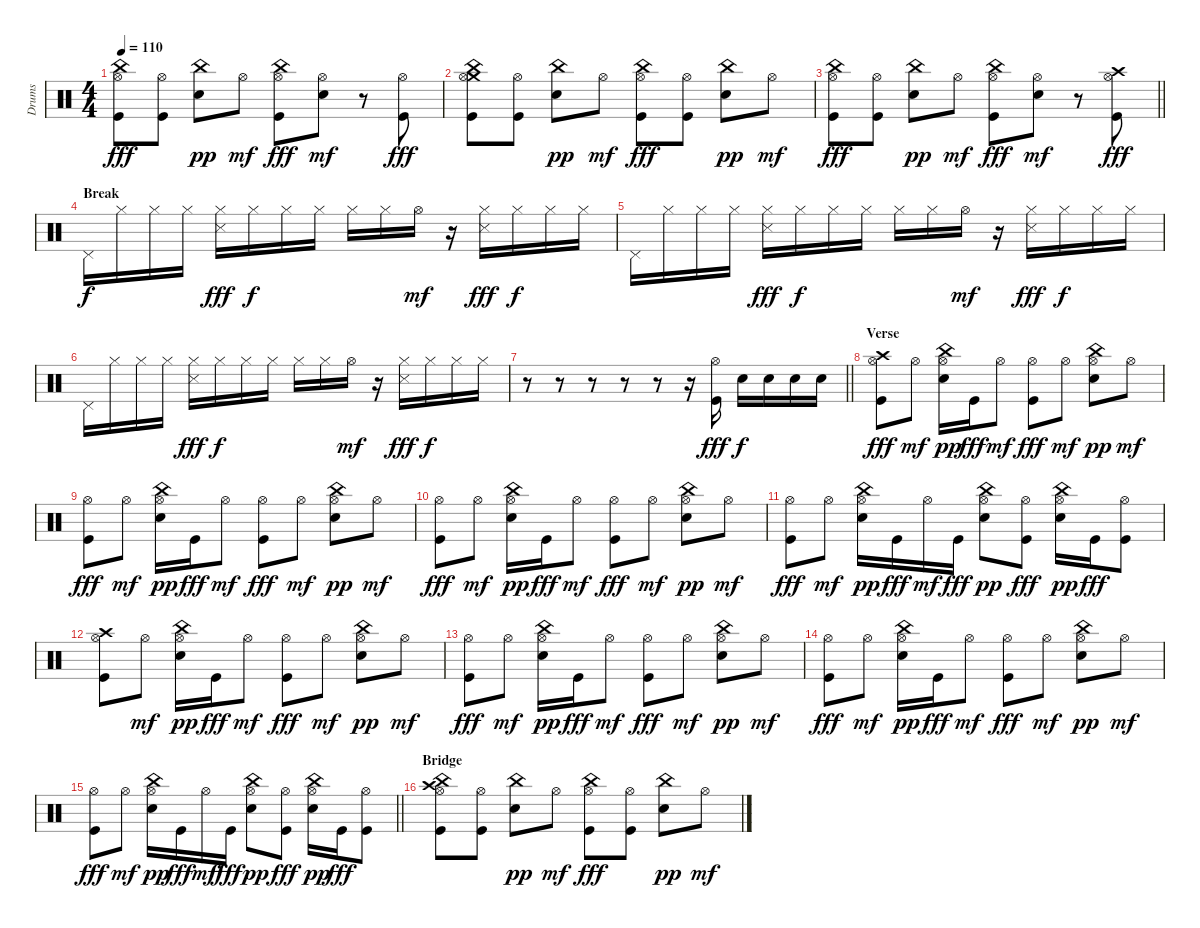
\track ("Drums" "Drums") {instrument percussion}
\staff {score}
\articulation defaults
\ts (4 4)
\tempo 110
\clef neutral
\ks c
("Hi-Hat (open)" "China (hit)" "Kick (hit)").8{dy fff} ("Hi-Hat (open)" "Kick (hit)").8 ("China (hit)" "Electric Snare (hit)").8{dy pp} "Hi-Hat (open)".8{dy mf} ("Hi-Hat (open)" "China (hit)" "Kick (hit)").8{dy fff} ("Hi-Hat (open)" "Electric Snare (hit)").8{dy mf} r.8 ("Hi-Hat (open)" "Kick (hit)").8{dy fff} |
("Crash medium (hit)" "Hi-Hat (open)" "China (hit)" "Kick (hit)").8 ("Hi-Hat (open)" "Kick (hit)").8 ("China (hit)" "Electric Snare (hit)").8{dy pp} "Hi-Hat (open)".8{dy mf} ("Hi-Hat (open)" "China (hit)" "Kick (hit)").8{dy fff} ("Hi-Hat (open)" "Kick (hit)").8 ("China (hit)" "Electric Snare (hit)").8{dy pp} "Hi-Hat (open)".8{dy mf} |
\barLineRight lightlight
("Hi-Hat (open)" "China (hit)" "Kick (hit)").8{dy fff} ("Hi-Hat (open)" "Kick (hit)").8 ("China (hit)" "Electric Snare (hit)").8{dy pp} "Hi-Hat (open)".8{dy mf} ("Hi-Hat (open)" "China (hit)" "Kick (hit)").8{dy fff} ("Hi-Hat (open)" "Electric Snare (hit)").8{dy mf} r.8 ("Crash high (hit)" "Hi-Hat (open)" "Kick (hit)").8{dy fff} |
\section ("" "Break")
"Pedal Hi-Hat (hit)".16{dy f} "Hi-Hat (closed)".16 "Hi-Hat (closed)".16 "Hi-Hat (closed)".16 ("Hi-Hat (closed)" "Snare (side stick) 3").16{dy fff} "Hi-Hat (closed)".16{dy f} "Hi-Hat (closed)".16 "Hi-Hat (closed)".16 "Hi-Hat (closed)".16 "Hi-Hat (closed)".16 "Hi-Hat (open)".16{dy mf} r.16 ("Hi-Hat (closed)" "Snare (side stick) 3").16{dy fff} "Hi-Hat (closed)".16{dy f} "Hi-Hat (closed)".16 "Hi-Hat (closed)".16 |
"Pedal Hi-Hat (hit)".16 "Hi-Hat (closed)".16 "Hi-Hat (closed)".16 "Hi-Hat (closed)".16 ("Hi-Hat (closed)" "Snare (side stick) 3").16{dy fff} "Hi-Hat (closed)".16{dy f} "Hi-Hat (closed)".16 "Hi-Hat (closed)".16 "Hi-Hat (closed)".16 "Hi-Hat (closed)".16 "Hi-Hat (open)".16{dy mf} r.16 ("Hi-Hat (closed)" "Snare (side stick) 3").16{dy fff} "Hi-Hat (closed)".16{dy f} "Hi-Hat (closed)".16 "Hi-Hat (closed)".16 |
"Pedal Hi-Hat (hit)".16 "Hi-Hat (closed)".16 "Hi-Hat (closed)".16 "Hi-Hat (closed)".16 ("Hi-Hat (closed)" "Snare (side stick) 3").16{dy fff} "Hi-Hat (closed)".16{dy f} "Hi-Hat (closed)".16 "Hi-Hat (closed)".16 "Hi-Hat (closed)".16 "Hi-Hat (closed)".16 "Hi-Hat (open)".16{dy mf} r.16 ("Hi-Hat (closed)" "Snare (side stick) 3").16{dy fff} "Hi-Hat (closed)".16{dy f} "Hi-Hat (closed)".16 "Hi-Hat (closed)".16 |
\barLineRight lightlight
r.8 r.8 r.8 r.8 r.8 r.16 ("Hi-Hat (open)" "Kick (hit)").16{dy fff} "Electric Snare (hit)".16{dy f} "Electric Snare (hit)".16 "Electric Snare (hit)".16 "Electric Snare (hit)".16 |
\section ("" "Verse")
("Crash high (hit)" "Hi-Hat (open)" "Kick (hit)").8{dy fff} "Hi-Hat (open)".8{dy mf} ("Hi-Hat (open)" "China (hit)" "Electric Snare (hit)").16{dy pp} "Kick (hit)".16{dy fff} "Hi-Hat (open)".8{dy mf} ("Hi-Hat (open)" "Kick (hit)").8{dy fff} "Hi-Hat (open)".8{dy mf} ("Hi-Hat (open)" "China (hit)" "Electric Snare (hit)").8{dy pp} "Hi-Hat (open)".8{dy mf} |
("Hi-Hat (open)" "Kick (hit)").8{dy fff} "Hi-Hat (open)".8{dy mf} ("Hi-Hat (open)" "China (hit)" "Electric Snare (hit)").16{dy pp} "Kick (hit)".16{dy fff} "Hi-Hat (open)".8{dy mf} ("Hi-Hat (open)" "Kick (hit)").8{dy fff} "Hi-Hat (open)".8{dy mf} ("Hi-Hat (open)" "China (hit)" "Electric Snare (hit)").8{dy pp} "Hi-Hat (open)".8{dy mf} |
("Hi-Hat (open)" "Kick (hit)").8{dy fff} "Hi-Hat (open)".8{dy mf} ("Hi-Hat (open)" "China (hit)" "Electric Snare (hit)").16{dy pp} "Kick (hit)".16{dy fff} "Hi-Hat (open)".8{dy mf} ("Hi-Hat (open)" "Kick (hit)").8{dy fff} "Hi-Hat (open)".8{dy mf} ("Hi-Hat (open)" "China (hit)" "Electric Snare (hit)").8{dy pp} "Hi-Hat (open)".8{dy mf} |
("Hi-Hat (open)" "Kick (hit)").8{dy fff} "Hi-Hat (open)".8{dy mf} ("Hi-Hat (open)" "China (hit)" "Electric Snare (hit)").16{dy pp} "Kick (hit)".16{dy fff} "Hi-Hat (open)".16{dy mf} "Kick (hit)".16{dy fff} ("Hi-Hat (open)" "China (hit)" "Electric Snare (hit)").8{dy pp} ("Hi-Hat (open)" "Kick (hit)").8{dy fff} ("Hi-Hat (open)" "China (hit)" "Electric Snare (hit)").16{dy pp} "Kick (hit)".16{dy fff} ("Hi-Hat (open)" "Kick (hit)").8 |
("Crash high (hit)" "Hi-Hat (open)" "Kick (hit)").8 "Hi-Hat (open)".8{dy mf} ("Hi-Hat (open)" "China (hit)" "Electric Snare (hit)").16{dy pp} "Kick (hit)".16{dy fff} "Hi-Hat (open)".8{dy mf} ("Hi-Hat (open)" "Kick (hit)").8{dy fff} "Hi-Hat (open)".8{dy mf} ("Hi-Hat (open)" "China (hit)" "Electric Snare (hit)").8{dy pp} "Hi-Hat (open)".8{dy mf} |
("Hi-Hat (open)" "Kick (hit)").8{dy fff} "Hi-Hat (open)".8{dy mf} ("Hi-Hat (open)" "China (hit)" "Electric Snare (hit)").16{dy pp} "Kick (hit)".16{dy fff} "Hi-Hat (open)".8{dy mf} ("Hi-Hat (open)" "Kick (hit)").8{dy fff} "Hi-Hat (open)".8{dy mf} ("Hi-Hat (open)" "China (hit)" "Electric Snare (hit)").8{dy pp} "Hi-Hat (open)".8{dy mf} |
("Hi-Hat (open)" "Kick (hit)").8{dy fff} "Hi-Hat (open)".8{dy mf} ("Hi-Hat (open)" "China (hit)" "Electric Snare (hit)").16{dy pp} "Kick (hit)".16{dy fff} "Hi-Hat (open)".8{dy mf} ("Hi-Hat (open)" "Kick (hit)").8{dy fff} "Hi-Hat (open)".8{dy mf} ("Hi-Hat (open)" "China (hit)" "Electric Snare (hit)").8{dy pp} "Hi-Hat (open)".8{dy mf} |
\barLineRight lightlight
("Hi-Hat (open)" "Kick (hit)").8{dy fff} "Hi-Hat (open)".8{dy mf} ("Hi-Hat (open)" "China (hit)" "Electric Snare (hit)").16{dy pp} "Kick (hit)".16{dy fff} "Hi-Hat (open)".16{dy mf} "Kick (hit)".16{dy fff} ("Hi-Hat (open)" "China (hit)" "Electric Snare (hit)").8{dy pp} ("Hi-Hat (open)" "Kick (hit)").8{dy fff} ("Hi-Hat (open)" "China (hit)" "Electric Snare (hit)").16{dy pp} "Kick (hit)".16{dy fff} ("Hi-Hat (open)" "Kick (hit)").8 |
\section ("" "Bridge")
("Crash high (hit)" "Hi-Hat (open)" "China (hit)" "Kick (hit)").8 ("Hi-Hat (open)" "Kick (hit)").8 ("China (hit)" "Electric Snare (hit)").8{dy pp} "Hi-Hat (open)".8{dy mf} ("Hi-Hat (open)" "China (hit)" "Kick (hit)").8{dy fff} ("Hi-Hat (open)" "Kick (hit)").8 ("China (hit)" "Electric Snare (hit)").8{dy pp} "Hi-Hat (open)".8{dy mf}
